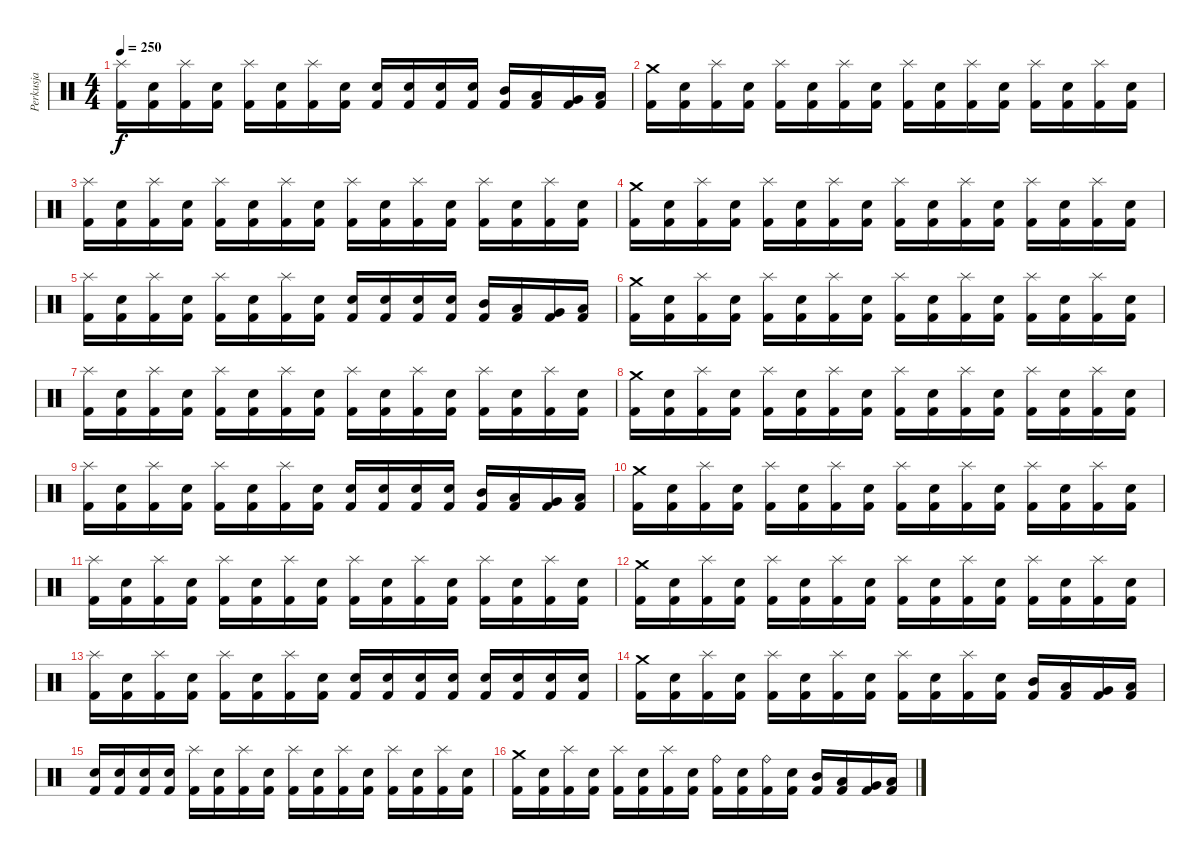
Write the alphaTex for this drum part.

\track ("Perkusja" "Perkusja") {instrument percussion}
\staff {score}
\articulation defaults
\ts (4 4)
\tempo 250
\clef neutral
\ks c
("Splash (hit)" "Kick (hit) 2").16{dy f} ("Snare (hit) 2" "Kick (hit) 2").16 ("Splash (hit)" "Kick (hit) 2").16 ("Snare (hit) 2" "Kick (hit) 2").16 ("Splash (hit)" "Kick (hit) 2").16 ("Snare (hit) 2" "Kick (hit) 2").16 ("Splash (hit)" "Kick (hit) 2").16 ("Snare (hit) 2" "Kick (hit) 2").16 ("Electric Snare (hit)" "Kick (hit) 2").16 ("Electric Snare (hit)" "Kick (hit) 2").16 ("Electric Snare (hit)" "Kick (hit) 2").16 ("Electric Snare (hit)" "Kick (hit) 2").16 ("Mid Tom (hit)" "Kick (hit) 2").16 ("Low Tom (hit)" "Kick (hit) 2").16 ("Very Low Tom (hit)" "Kick (hit) 2").16 ("Low Floor Tom (hit)" "Kick (hit) 2").16 |
("Crash medium (hit)" "Kick (hit) 2").16 ("Snare (hit) 2" "Kick (hit) 2").16 ("Splash (hit)" "Kick (hit) 2").16 ("Snare (hit) 2" "Kick (hit) 2").16 ("Splash (hit)" "Kick (hit) 2").16 ("Snare (hit) 2" "Kick (hit) 2").16 ("Splash (hit)" "Kick (hit) 2").16 ("Snare (hit) 2" "Kick (hit) 2").16 ("Splash (hit)" "Kick (hit) 2").16 ("Snare (hit) 2" "Kick (hit) 2").16 ("Splash (hit)" "Kick (hit) 2").16 ("Snare (hit) 2" "Kick (hit) 2").16 ("Splash (hit)" "Kick (hit) 2").16 ("Snare (hit) 2" "Kick (hit) 2").16 ("Splash (hit)" "Kick (hit) 2").16 ("Snare (hit) 2" "Kick (hit) 2").16 |
("Splash (hit)" "Kick (hit) 2").16 ("Snare (hit) 2" "Kick (hit) 2").16 ("Splash (hit)" "Kick (hit) 2").16 ("Snare (hit) 2" "Kick (hit) 2").16 ("Splash (hit)" "Kick (hit) 2").16 ("Snare (hit) 2" "Kick (hit) 2").16 ("Splash (hit)" "Kick (hit) 2").16 ("Snare (hit) 2" "Kick (hit) 2").16 ("Splash (hit)" "Kick (hit) 2").16 ("Snare (hit) 2" "Kick (hit) 2").16 ("Splash (hit)" "Kick (hit) 2").16 ("Snare (hit) 2" "Kick (hit) 2").16 ("Splash (hit)" "Kick (hit) 2").16 ("Snare (hit) 2" "Kick (hit) 2").16 ("Splash (hit)" "Kick (hit) 2").16 ("Snare (hit) 2" "Kick (hit) 2").16 |
("Crash medium (hit)" "Kick (hit) 2").16 ("Snare (hit) 2" "Kick (hit) 2").16 ("Splash (hit)" "Kick (hit) 2").16 ("Snare (hit) 2" "Kick (hit) 2").16 ("Splash (hit)" "Kick (hit) 2").16 ("Snare (hit) 2" "Kick (hit) 2").16 ("Splash (hit)" "Kick (hit) 2").16 ("Snare (hit) 2" "Kick (hit) 2").16 ("Splash (hit)" "Kick (hit) 2").16 ("Snare (hit) 2" "Kick (hit) 2").16 ("Splash (hit)" "Kick (hit) 2").16 ("Snare (hit) 2" "Kick (hit) 2").16 ("Splash (hit)" "Kick (hit) 2").16 ("Snare (hit) 2" "Kick (hit) 2").16 ("Splash (hit)" "Kick (hit) 2").16 ("Snare (hit) 2" "Kick (hit) 2").16 |
("Splash (hit)" "Kick (hit) 2").16 ("Snare (hit) 2" "Kick (hit) 2").16 ("Splash (hit)" "Kick (hit) 2").16 ("Snare (hit) 2" "Kick (hit) 2").16 ("Splash (hit)" "Kick (hit) 2").16 ("Snare (hit) 2" "Kick (hit) 2").16 ("Splash (hit)" "Kick (hit) 2").16 ("Snare (hit) 2" "Kick (hit) 2").16 ("Electric Snare (hit)" "Kick (hit) 2").16 ("Electric Snare (hit)" "Kick (hit) 2").16 ("Electric Snare (hit)" "Kick (hit) 2").16 ("Electric Snare (hit)" "Kick (hit) 2").16 ("Mid Tom (hit)" "Kick (hit) 2").16 ("Low Tom (hit)" "Kick (hit) 2").16 ("Very Low Tom (hit)" "Kick (hit) 2").16 ("Low Floor Tom (hit)" "Kick (hit) 2").16 |
("Crash medium (hit)" "Kick (hit) 2").16 ("Snare (hit) 2" "Kick (hit) 2").16 ("Splash (hit)" "Kick (hit) 2").16 ("Snare (hit) 2" "Kick (hit) 2").16 ("Splash (hit)" "Kick (hit) 2").16 ("Snare (hit) 2" "Kick (hit) 2").16 ("Splash (hit)" "Kick (hit) 2").16 ("Snare (hit) 2" "Kick (hit) 2").16 ("Splash (hit)" "Kick (hit) 2").16 ("Snare (hit) 2" "Kick (hit) 2").16 ("Splash (hit)" "Kick (hit) 2").16 ("Snare (hit) 2" "Kick (hit) 2").16 ("Splash (hit)" "Kick (hit) 2").16 ("Snare (hit) 2" "Kick (hit) 2").16 ("Splash (hit)" "Kick (hit) 2").16 ("Snare (hit) 2" "Kick (hit) 2").16 |
("Splash (hit)" "Kick (hit) 2").16 ("Snare (hit) 2" "Kick (hit) 2").16 ("Splash (hit)" "Kick (hit) 2").16 ("Snare (hit) 2" "Kick (hit) 2").16 ("Splash (hit)" "Kick (hit) 2").16 ("Snare (hit) 2" "Kick (hit) 2").16 ("Splash (hit)" "Kick (hit) 2").16 ("Snare (hit) 2" "Kick (hit) 2").16 ("Splash (hit)" "Kick (hit) 2").16 ("Snare (hit) 2" "Kick (hit) 2").16 ("Splash (hit)" "Kick (hit) 2").16 ("Snare (hit) 2" "Kick (hit) 2").16 ("Splash (hit)" "Kick (hit) 2").16 ("Snare (hit) 2" "Kick (hit) 2").16 ("Splash (hit)" "Kick (hit) 2").16 ("Snare (hit) 2" "Kick (hit) 2").16 |
("Crash medium (hit)" "Kick (hit) 2").16 ("Snare (hit) 2" "Kick (hit) 2").16 ("Splash (hit)" "Kick (hit) 2").16 ("Snare (hit) 2" "Kick (hit) 2").16 ("Splash (hit)" "Kick (hit) 2").16 ("Snare (hit) 2" "Kick (hit) 2").16 ("Splash (hit)" "Kick (hit) 2").16 ("Snare (hit) 2" "Kick (hit) 2").16 ("Splash (hit)" "Kick (hit) 2").16 ("Snare (hit) 2" "Kick (hit) 2").16 ("Splash (hit)" "Kick (hit) 2").16 ("Snare (hit) 2" "Kick (hit) 2").16 ("Splash (hit)" "Kick (hit) 2").16 ("Snare (hit) 2" "Kick (hit) 2").16 ("Splash (hit)" "Kick (hit) 2").16 ("Snare (hit) 2" "Kick (hit) 2").16 |
("Splash (hit)" "Kick (hit) 2").16 ("Snare (hit) 2" "Kick (hit) 2").16 ("Splash (hit)" "Kick (hit) 2").16 ("Snare (hit) 2" "Kick (hit) 2").16 ("Splash (hit)" "Kick (hit) 2").16 ("Snare (hit) 2" "Kick (hit) 2").16 ("Splash (hit)" "Kick (hit) 2").16 ("Snare (hit) 2" "Kick (hit) 2").16 ("Electric Snare (hit)" "Kick (hit) 2").16 ("Electric Snare (hit)" "Kick (hit) 2").16 ("Electric Snare (hit)" "Kick (hit) 2").16 ("Electric Snare (hit)" "Kick (hit) 2").16 ("Mid Tom (hit)" "Kick (hit) 2").16 ("Low Tom (hit)" "Kick (hit) 2").16 ("Very Low Tom (hit)" "Kick (hit) 2").16 ("Low Floor Tom (hit)" "Kick (hit) 2").16 |
("Crash medium (hit)" "Kick (hit) 2").16 ("Snare (hit) 2" "Kick (hit) 2").16 ("Splash (hit)" "Kick (hit) 2").16 ("Snare (hit) 2" "Kick (hit) 2").16 ("Splash (hit)" "Kick (hit) 2").16 ("Snare (hit) 2" "Kick (hit) 2").16 ("Splash (hit)" "Kick (hit) 2").16 ("Snare (hit) 2" "Kick (hit) 2").16 ("Splash (hit)" "Kick (hit) 2").16 ("Snare (hit) 2" "Kick (hit) 2").16 ("Splash (hit)" "Kick (hit) 2").16 ("Snare (hit) 2" "Kick (hit) 2").16 ("Splash (hit)" "Kick (hit) 2").16 ("Snare (hit) 2" "Kick (hit) 2").16 ("Splash (hit)" "Kick (hit) 2").16 ("Snare (hit) 2" "Kick (hit) 2").16 |
("Splash (hit)" "Kick (hit) 2").16 ("Snare (hit) 2" "Kick (hit) 2").16 ("Splash (hit)" "Kick (hit) 2").16 ("Snare (hit) 2" "Kick (hit) 2").16 ("Splash (hit)" "Kick (hit) 2").16 ("Snare (hit) 2" "Kick (hit) 2").16 ("Splash (hit)" "Kick (hit) 2").16 ("Snare (hit) 2" "Kick (hit) 2").16 ("Splash (hit)" "Kick (hit) 2").16 ("Snare (hit) 2" "Kick (hit) 2").16 ("Splash (hit)" "Kick (hit) 2").16 ("Snare (hit) 2" "Kick (hit) 2").16 ("Splash (hit)" "Kick (hit) 2").16 ("Snare (hit) 2" "Kick (hit) 2").16 ("Splash (hit)" "Kick (hit) 2").16 ("Snare (hit) 2" "Kick (hit) 2").16 |
("Crash medium (hit)" "Kick (hit) 2").16 ("Snare (hit) 2" "Kick (hit) 2").16 ("Splash (hit)" "Kick (hit) 2").16 ("Snare (hit) 2" "Kick (hit) 2").16 ("Splash (hit)" "Kick (hit) 2").16 ("Snare (hit) 2" "Kick (hit) 2").16 ("Splash (hit)" "Kick (hit) 2").16 ("Snare (hit) 2" "Kick (hit) 2").16 ("Splash (hit)" "Kick (hit) 2").16 ("Snare (hit) 2" "Kick (hit) 2").16 ("Splash (hit)" "Kick (hit) 2").16 ("Snare (hit) 2" "Kick (hit) 2").16 ("Splash (hit)" "Kick (hit) 2").16 ("Snare (hit) 2" "Kick (hit) 2").16 ("Splash (hit)" "Kick (hit) 2").16 ("Snare (hit) 2" "Kick (hit) 2").16 |
("Splash (hit)" "Kick (hit) 2").16 ("Snare (hit) 2" "Kick (hit) 2").16 ("Splash (hit)" "Kick (hit) 2").16 ("Snare (hit) 2" "Kick (hit) 2").16 ("Splash (hit)" "Kick (hit) 2").16 ("Snare (hit) 2" "Kick (hit) 2").16 ("Splash (hit)" "Kick (hit) 2").16 ("Snare (hit) 2" "Kick (hit) 2").16 ("Snare (hit) 2" "Kick (hit) 2").16 ("Snare (hit) 2" "Kick (hit) 2").16 ("Snare (hit) 2" "Kick (hit) 2").16 ("Snare (hit) 2" "Kick (hit) 2").16 ("Electric Snare (hit)" "Kick (hit) 2").16 ("Electric Snare (hit)" "Kick (hit) 2").16 ("Electric Snare (hit)" "Kick (hit) 2").16 ("Electric Snare (hit)" "Kick (hit) 2").16 |
("Crash medium (hit)" "Kick (hit) 2").16 ("Snare (hit) 2" "Kick (hit) 2").16 ("Splash (hit)" "Kick (hit) 2").16 ("Snare (hit) 2" "Kick (hit) 2").16 ("Splash (hit)" "Kick (hit) 2").16 ("Snare (hit) 2" "Kick (hit) 2").16 ("Splash (hit)" "Kick (hit) 2").16 ("Snare (hit) 2" "Kick (hit) 2").16 ("Splash (hit)" "Kick (hit) 2").16 ("Snare (hit) 2" "Kick (hit) 2").16 ("Splash (hit)" "Kick (hit) 2").16 ("Snare (hit) 2" "Kick (hit) 2").16 ("Mid Tom (hit)" "Kick (hit) 2").16 ("Low Tom (hit)" "Kick (hit) 2").16 ("Very Low Tom (hit)" "Kick (hit) 2").16 ("Low Floor Tom (hit)" "Kick (hit) 2").16 |
("Electric Snare (hit)" "Kick (hit) 2").16 ("Electric Snare (hit)" "Kick (hit) 2").16 ("Electric Snare (hit)" "Kick (hit) 2").16 ("Electric Snare (hit)" "Kick (hit) 2").16 ("Splash (hit)" "Kick (hit) 2").16 ("Snare (hit) 2" "Kick (hit) 2").16 ("Splash (hit)" "Kick (hit) 2").16 ("Snare (hit) 2" "Kick (hit) 2").16 ("Splash (hit)" "Kick (hit) 2").16 ("Snare (hit) 2" "Kick (hit) 2").16 ("Splash (hit)" "Kick (hit) 2").16 ("Snare (hit) 2" "Kick (hit) 2").16 ("Splash (hit)" "Kick (hit) 2").16 ("Snare (hit) 2" "Kick (hit) 2").16 ("Splash (hit)" "Kick (hit) 2").16 ("Snare (hit) 2" "Kick (hit) 2").16 |
("Crash medium (hit)" "Kick (hit) 2").16 ("Snare (hit) 2" "Kick (hit) 2").16 ("Splash (hit)" "Kick (hit) 2").16 ("Snare (hit) 2" "Kick (hit) 2").16 ("Splash (hit)" "Kick (hit) 2").16 ("Snare (hit) 2" "Kick (hit) 2").16 ("Splash (hit)" "Kick (hit) 2").16 ("Snare (hit) 2" "Kick (hit) 2").16 ("Ride (bell)" "Kick (hit) 2").16 ("Snare (hit) 2" "Kick (hit) 2").16 ("Ride (bell)" "Kick (hit) 2").16 ("Snare (hit) 2" "Kick (hit) 2").16 ("Mid Tom (hit)" "Kick (hit) 2").16 ("Low Tom (hit)" "Kick (hit) 2").16 ("Very Low Tom (hit)" "Kick (hit) 2").16 ("Low Floor Tom (hit)" "Kick (hit) 2").16
